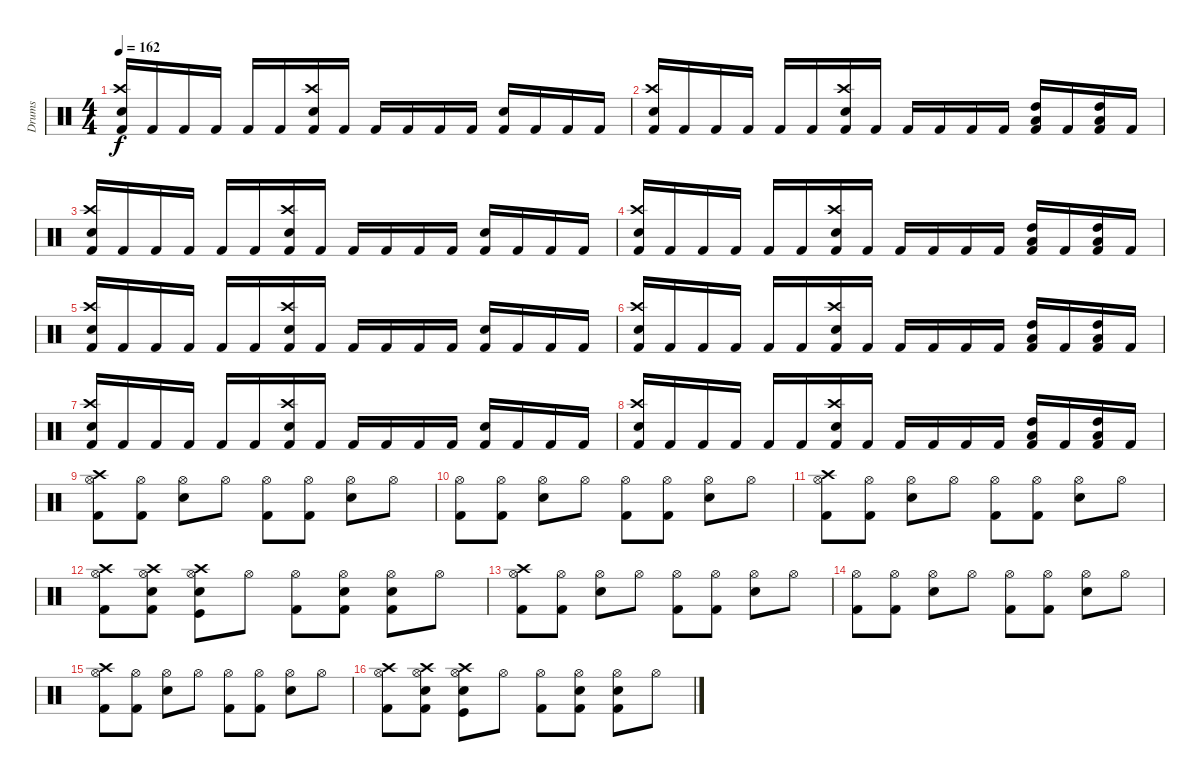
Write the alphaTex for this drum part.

\track ("Drums" "Drums") {instrument percussion}
\staff {score}
\articulation defaults
\ts (4 4)
\tempo 162
\clef neutral
\ks c
("Kick (hit) 2" "Crash high (hit)" "Electric Snare (hit)").16{dy f} "Kick (hit) 2".16 "Kick (hit) 2".16 "Kick (hit) 2".16 "Kick (hit) 2".16 "Kick (hit) 2".16 ("Kick (hit) 2" "Crash high (hit)" "Electric Snare (hit)").16 "Kick (hit) 2".16 "Kick (hit) 2".16 "Kick (hit) 2".16 "Kick (hit) 2".16 "Kick (hit) 2".16 ("Kick (hit) 2" "Electric Snare (hit)").16 "Kick (hit) 2".16 "Kick (hit) 2".16 "Kick (hit) 2".16 |
("Kick (hit) 2" "Crash high (hit)" "Electric Snare (hit)").16 "Kick (hit) 2".16 "Kick (hit) 2".16 "Kick (hit) 2".16 "Kick (hit) 2".16 "Kick (hit) 2".16 ("Kick (hit) 2" "Crash high (hit)" "Electric Snare (hit)").16 "Kick (hit) 2".16 "Kick (hit) 2".16 "Kick (hit) 2".16 "Kick (hit) 2".16 "Kick (hit) 2".16 ("Kick (hit) 2" "High Tom (hit)" "Low Tom (hit)").16 "Kick (hit) 2".16 ("Kick (hit) 2" "High Tom (hit)" "Low Tom (hit)").16 "Kick (hit) 2".16 |
("Kick (hit) 2" "Crash high (hit)" "Electric Snare (hit)").16 "Kick (hit) 2".16 "Kick (hit) 2".16 "Kick (hit) 2".16 "Kick (hit) 2".16 "Kick (hit) 2".16 ("Kick (hit) 2" "Crash high (hit)" "Electric Snare (hit)").16 "Kick (hit) 2".16 "Kick (hit) 2".16 "Kick (hit) 2".16 "Kick (hit) 2".16 "Kick (hit) 2".16 ("Kick (hit) 2" "Electric Snare (hit)").16 "Kick (hit) 2".16 "Kick (hit) 2".16 "Kick (hit) 2".16 |
("Kick (hit) 2" "Crash high (hit)" "Electric Snare (hit)").16 "Kick (hit) 2".16 "Kick (hit) 2".16 "Kick (hit) 2".16 "Kick (hit) 2".16 "Kick (hit) 2".16 ("Kick (hit) 2" "Crash high (hit)" "Electric Snare (hit)").16 "Kick (hit) 2".16 "Kick (hit) 2".16 "Kick (hit) 2".16 "Kick (hit) 2".16 "Kick (hit) 2".16 ("Kick (hit) 2" "High Tom (hit)" "Low Tom (hit)").16 "Kick (hit) 2".16 ("Kick (hit) 2" "High Tom (hit)" "Low Tom (hit)").16 "Kick (hit) 2".16 |
("Kick (hit) 2" "Crash high (hit)" "Electric Snare (hit)").16 "Kick (hit) 2".16 "Kick (hit) 2".16 "Kick (hit) 2".16 "Kick (hit) 2".16 "Kick (hit) 2".16 ("Kick (hit) 2" "Crash high (hit)" "Electric Snare (hit)").16 "Kick (hit) 2".16 "Kick (hit) 2".16 "Kick (hit) 2".16 "Kick (hit) 2".16 "Kick (hit) 2".16 ("Kick (hit) 2" "Electric Snare (hit)").16 "Kick (hit) 2".16 "Kick (hit) 2".16 "Kick (hit) 2".16 |
("Kick (hit) 2" "Crash high (hit)" "Electric Snare (hit)").16 "Kick (hit) 2".16 "Kick (hit) 2".16 "Kick (hit) 2".16 "Kick (hit) 2".16 "Kick (hit) 2".16 ("Kick (hit) 2" "Crash high (hit)" "Electric Snare (hit)").16 "Kick (hit) 2".16 "Kick (hit) 2".16 "Kick (hit) 2".16 "Kick (hit) 2".16 "Kick (hit) 2".16 ("Kick (hit) 2" "High Tom (hit)" "Low Tom (hit)").16 "Kick (hit) 2".16 ("Kick (hit) 2" "High Tom (hit)" "Low Tom (hit)").16 "Kick (hit) 2".16 |
("Kick (hit) 2" "Crash high (hit)" "Electric Snare (hit)").16 "Kick (hit) 2".16 "Kick (hit) 2".16 "Kick (hit) 2".16 "Kick (hit) 2".16 "Kick (hit) 2".16 ("Kick (hit) 2" "Crash high (hit)" "Electric Snare (hit)").16 "Kick (hit) 2".16 "Kick (hit) 2".16 "Kick (hit) 2".16 "Kick (hit) 2".16 "Kick (hit) 2".16 ("Kick (hit) 2" "Electric Snare (hit)").16 "Kick (hit) 2".16 "Kick (hit) 2".16 "Kick (hit) 2".16 |
("Kick (hit) 2" "Crash high (hit)" "Electric Snare (hit)").16 "Kick (hit) 2".16 "Kick (hit) 2".16 "Kick (hit) 2".16 "Kick (hit) 2".16 "Kick (hit) 2".16 ("Kick (hit) 2" "Crash high (hit)" "Electric Snare (hit)").16 "Kick (hit) 2".16 "Kick (hit) 2".16 "Kick (hit) 2".16 "Kick (hit) 2".16 "Kick (hit) 2".16 ("Kick (hit) 2" "High Tom (hit)" "Low Tom (hit)").16 "Kick (hit) 2".16 ("Kick (hit) 2" "High Tom (hit)" "Low Tom (hit)").16 "Kick (hit) 2".16 |
("Crash high (hit)" "Hi-Hat (open)" "Kick (hit) 2").8 ("Hi-Hat (open)" "Kick (hit) 2").8 ("Hi-Hat (open)" "Snare (hit) 2").8 "Hi-Hat (open)".8 ("Hi-Hat (open)" "Kick (hit) 2").8 ("Hi-Hat (open)" "Kick (hit) 2").8 ("Hi-Hat (open)" "Snare (hit) 2").8 "Hi-Hat (open)".8 |
("Hi-Hat (open)" "Kick (hit) 2").8 ("Hi-Hat (open)" "Kick (hit) 2").8 ("Hi-Hat (open)" "Snare (hit) 2").8 "Hi-Hat (open)".8 ("Hi-Hat (open)" "Kick (hit) 2").8 ("Hi-Hat (open)" "Kick (hit) 2").8 ("Hi-Hat (open)" "Snare (hit) 2").8 "Hi-Hat (open)".8 |
("Crash high (hit)" "Hi-Hat (open)" "Kick (hit) 2").8 ("Hi-Hat (open)" "Kick (hit) 2").8 ("Hi-Hat (open)" "Snare (hit) 2").8 "Hi-Hat (open)".8 ("Hi-Hat (open)" "Kick (hit) 2").8 ("Hi-Hat (open)" "Kick (hit) 2").8 ("Hi-Hat (open)" "Snare (hit) 2").8 "Hi-Hat (open)".8 |
("Crash high (hit)" "Hi-Hat (open)" "Kick (hit) 2").8 ("Crash high (hit)" "Snare (hit) 2" "Hi-Hat (open)" "Kick (hit) 2").8 ("Crash high (hit)" "Kick (hit)" "Hi-Hat (open)" "Snare (hit) 2").8 "Hi-Hat (open)".8 ("Hi-Hat (open)" "Kick (hit) 2").8 ("Electric Snare (hit)" "Hi-Hat (open)" "Kick (hit) 2").8 ("Kick (hit) 2" "Hi-Hat (open)" "Snare (hit) 2").8 "Hi-Hat (open)".8 |
("Crash high (hit)" "Hi-Hat (open)" "Kick (hit) 2").8 ("Hi-Hat (open)" "Kick (hit) 2").8 ("Hi-Hat (open)" "Snare (hit) 2").8 "Hi-Hat (open)".8 ("Hi-Hat (open)" "Kick (hit) 2").8 ("Hi-Hat (open)" "Kick (hit) 2").8 ("Hi-Hat (open)" "Snare (hit) 2").8 "Hi-Hat (open)".8 |
("Hi-Hat (open)" "Kick (hit) 2").8 ("Hi-Hat (open)" "Kick (hit) 2").8 ("Hi-Hat (open)" "Snare (hit) 2").8 "Hi-Hat (open)".8 ("Hi-Hat (open)" "Kick (hit) 2").8 ("Hi-Hat (open)" "Kick (hit) 2").8 ("Hi-Hat (open)" "Snare (hit) 2").8 "Hi-Hat (open)".8 |
("Crash high (hit)" "Hi-Hat (open)" "Kick (hit) 2").8 ("Hi-Hat (open)" "Kick (hit) 2").8 ("Hi-Hat (open)" "Snare (hit) 2").8 "Hi-Hat (open)".8 ("Hi-Hat (open)" "Kick (hit) 2").8 ("Hi-Hat (open)" "Kick (hit) 2").8 ("Hi-Hat (open)" "Snare (hit) 2").8 "Hi-Hat (open)".8 |
("Crash high (hit)" "Hi-Hat (open)" "Kick (hit) 2").8 ("Crash high (hit)" "Snare (hit) 2" "Hi-Hat (open)" "Kick (hit) 2").8 ("Crash high (hit)" "Kick (hit)" "Hi-Hat (open)" "Snare (hit) 2").8 "Hi-Hat (open)".8 ("Hi-Hat (open)" "Kick (hit) 2").8 ("Electric Snare (hit)" "Hi-Hat (open)" "Kick (hit) 2").8 ("Kick (hit) 2" "Hi-Hat (open)" "Snare (hit) 2").8 "Hi-Hat (open)".8
